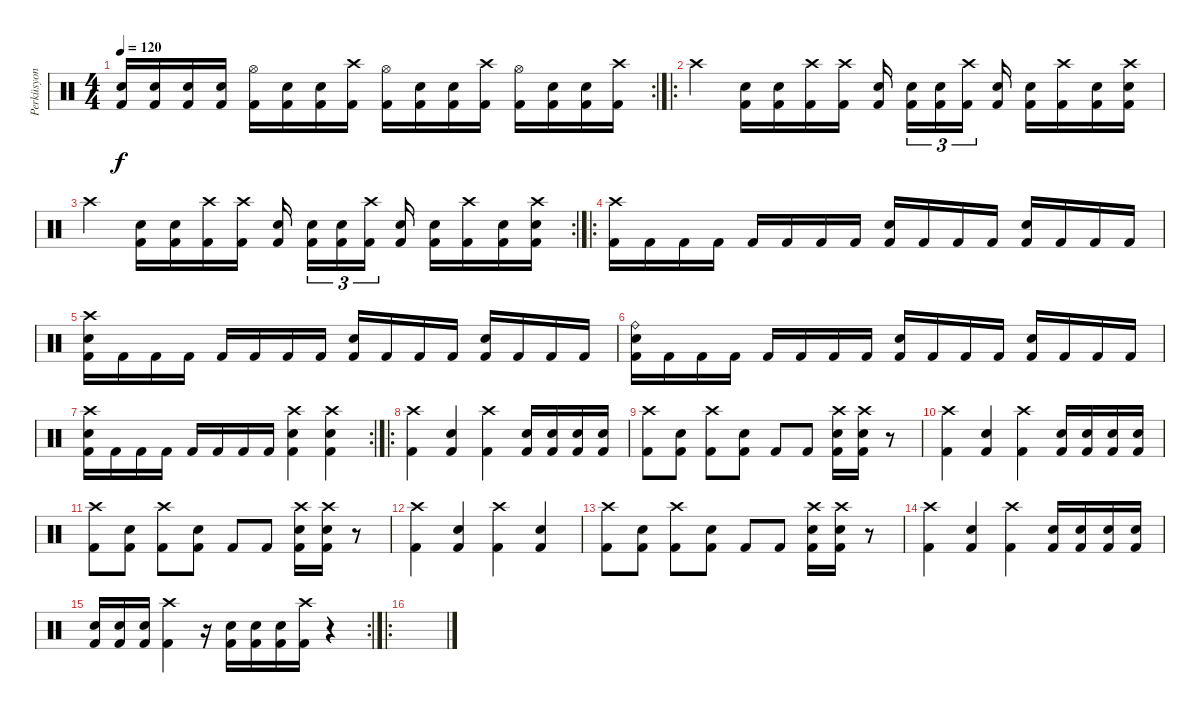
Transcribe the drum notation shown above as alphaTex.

\track ("Perküsyon" "Perküsyon") {instrument percussion}
\staff {score}
\articulation defaults
\rc 2
\ts (4 4)
\tempo 120
\clef neutral
\ks c
("Electric Snare (hit)" "Kick (hit) 2").16{dy f} ("Electric Snare (hit)" "Kick (hit) 2").16 ("Electric Snare (hit)" "Kick (hit) 2").16 ("Electric Snare (hit)" "Kick (hit) 2").16 ("Hi-Hat (open)" "Kick (hit) 2").16 ("Electric Snare (hit)" "Kick (hit) 2").16 ("Electric Snare (hit)" "Kick (hit) 2").16 ("Crash high (hit)" "Kick (hit) 2").16 ("Hi-Hat (open)" "Kick (hit) 2").16 ("Electric Snare (hit)" "Kick (hit) 2").16 ("Electric Snare (hit)" "Kick (hit) 2").16 ("Crash high (hit)" "Kick (hit) 2").16 ("Hi-Hat (open)" "Kick (hit) 2").16 ("Electric Snare (hit)" "Kick (hit) 2").16 ("Electric Snare (hit)" "Kick (hit) 2").16 ("Crash high (hit)" "Kick (hit) 2").16 |
\ro "Crash high (hit)".4
("Electric Snare (hit)" "Kick (hit) 2").16 ("Electric Snare (hit)" "Kick (hit) 2").16 ("Crash high (hit)" "Kick (hit) 2").16 ("Crash high (hit)" "Kick (hit) 2").16 ("Electric Snare (hit)" "Kick (hit) 2").16{beam splitsecondary} ("Electric Snare (hit)" "Kick (hit) 2").16{tu (3 2)} ("Electric Snare (hit)" "Kick (hit) 2").16{tu (3 2)} ("Crash high (hit)" "Kick (hit) 2").16{tu (3 2) beam splitsecondary} ("Electric Snare (hit)" "Kick (hit) 2").16 ("Electric Snare (hit)" "Kick (hit) 2").16 ("Crash high (hit)" "Kick (hit) 2").16 ("Electric Snare (hit)" "Kick (hit) 2").16 ("Crash high (hit)" "Electric Snare (hit)" "Kick (hit) 2").16 |
\rc 2 "Crash high (hit)".4
("Electric Snare (hit)" "Kick (hit) 2").16 ("Electric Snare (hit)" "Kick (hit) 2").16 ("Crash high (hit)" "Kick (hit) 2").16 ("Crash high (hit)" "Kick (hit) 2").16 ("Electric Snare (hit)" "Kick (hit) 2").16{beam splitsecondary} ("Electric Snare (hit)" "Kick (hit) 2").16{tu (3 2)} ("Electric Snare (hit)" "Kick (hit) 2").16{tu (3 2)} ("Crash high (hit)" "Kick (hit) 2").16{tu (3 2) beam splitsecondary} ("Electric Snare (hit)" "Kick (hit) 2").16 ("Electric Snare (hit)" "Kick (hit) 2").16 ("Crash high (hit)" "Kick (hit) 2").16 ("Electric Snare (hit)" "Kick (hit) 2").16 ("Crash high (hit)" "Electric Snare (hit)" "Kick (hit) 2").16 |
\ro
("Crash high (hit)" "Kick (hit) 2").16 "Kick (hit) 2".16 "Kick (hit) 2".16 "Kick (hit) 2".16 "Kick (hit) 2".16 "Kick (hit) 2".16 "Kick (hit) 2".16 "Kick (hit) 2".16 ("Electric Snare (hit)" "Kick (hit) 2").16 "Kick (hit) 2".16 "Kick (hit) 2".16 "Kick (hit) 2".16 ("Electric Snare (hit)" "Kick (hit) 2").16 "Kick (hit) 2".16 "Kick (hit) 2".16 "Kick (hit) 2".16 |
("Crash high (hit)" "Electric Snare (hit)" "Kick (hit) 2").16 "Kick (hit) 2".16 "Kick (hit) 2".16 "Kick (hit) 2".16 "Kick (hit) 2".16 "Kick (hit) 2".16 "Kick (hit) 2".16 "Kick (hit) 2".16 ("Electric Snare (hit)" "Kick (hit) 2").16 "Kick (hit) 2".16 "Kick (hit) 2".16 "Kick (hit) 2".16 ("Electric Snare (hit)" "Kick (hit) 2").16 "Kick (hit) 2".16 "Kick (hit) 2".16 "Kick (hit) 2".16 |
("Ride (bell)" "Electric Snare (hit)" "Kick (hit) 2").16 "Kick (hit) 2".16 "Kick (hit) 2".16 "Kick (hit) 2".16 "Kick (hit) 2".16 "Kick (hit) 2".16 "Kick (hit) 2".16 "Kick (hit) 2".16 ("Electric Snare (hit)" "Kick (hit) 2").16 "Kick (hit) 2".16 "Kick (hit) 2".16 "Kick (hit) 2".16 ("Electric Snare (hit)" "Kick (hit) 2").16 "Kick (hit) 2".16 "Kick (hit) 2".16 "Kick (hit) 2".16 |
\rc 2
("Crash high (hit)" "Electric Snare (hit)" "Kick (hit) 2").16 "Kick (hit) 2".16 "Kick (hit) 2".16 "Kick (hit) 2".16 "Kick (hit) 2".16 "Kick (hit) 2".16 "Kick (hit) 2".16 "Kick (hit) 2".16 ("Crash high (hit)" "Electric Snare (hit)" "Kick (hit) 2").4 ("Crash high (hit)" "Electric Snare (hit)" "Kick (hit) 2").4 |
\ro
("Crash high (hit)" "Kick (hit) 2").4 ("Electric Snare (hit)" "Kick (hit) 2").4 ("Crash high (hit)" "Kick (hit) 2").4 ("Electric Snare (hit)" "Kick (hit) 2").16 ("Electric Snare (hit)" "Kick (hit) 2").16 ("Electric Snare (hit)" "Kick (hit) 2").16 ("Electric Snare (hit)" "Kick (hit) 2").16 |
("Crash high (hit)" "Kick (hit) 2").8 ("Electric Snare (hit)" "Kick (hit) 2").8 ("Crash high (hit)" "Kick (hit) 2").8 ("Electric Snare (hit)" "Kick (hit) 2").8 "Kick (hit) 2".8 "Kick (hit) 2".8 ("Crash high (hit)" "Electric Snare (hit)" "Kick (hit) 2").16 ("Crash high (hit)" "Electric Snare (hit)" "Kick (hit) 2").16 r.8 |
("Crash high (hit)" "Kick (hit) 2").4 ("Electric Snare (hit)" "Kick (hit) 2").4 ("Crash high (hit)" "Kick (hit) 2").4 ("Electric Snare (hit)" "Kick (hit) 2").16 ("Electric Snare (hit)" "Kick (hit) 2").16 ("Electric Snare (hit)" "Kick (hit) 2").16 ("Electric Snare (hit)" "Kick (hit) 2").16 |
("Crash high (hit)" "Kick (hit) 2").8 ("Electric Snare (hit)" "Kick (hit) 2").8 ("Crash high (hit)" "Kick (hit) 2").8 ("Electric Snare (hit)" "Kick (hit) 2").8 "Kick (hit) 2".8 "Kick (hit) 2".8 ("Crash high (hit)" "Electric Snare (hit)" "Kick (hit) 2").16 ("Crash high (hit)" "Electric Snare (hit)" "Kick (hit) 2").16 r.8 |
("Crash high (hit)" "Kick (hit) 2").4 ("Electric Snare (hit)" "Kick (hit) 2").4 ("Crash high (hit)" "Kick (hit) 2").4 ("Electric Snare (hit)" "Kick (hit) 2").4 |
("Crash high (hit)" "Kick (hit) 2").8 ("Electric Snare (hit)" "Kick (hit) 2").8 ("Crash high (hit)" "Kick (hit) 2").8 ("Electric Snare (hit)" "Kick (hit) 2").8 "Kick (hit) 2".8 "Kick (hit) 2".8 ("Crash high (hit)" "Electric Snare (hit)" "Kick (hit) 2").16 ("Crash high (hit)" "Electric Snare (hit)" "Kick (hit) 2").16 r.8 |
("Crash high (hit)" "Kick (hit) 2").4 ("Electric Snare (hit)" "Kick (hit) 2").4 ("Crash high (hit)" "Kick (hit) 2").4 ("Electric Snare (hit)" "Kick (hit) 2").16 ("Electric Snare (hit)" "Kick (hit) 2").16 ("Electric Snare (hit)" "Kick (hit) 2").16 ("Electric Snare (hit)" "Kick (hit) 2").16 |
\rc 2
("Electric Snare (hit)" "Kick (hit) 2").16 ("Electric Snare (hit)" "Kick (hit) 2").16 ("Electric Snare (hit)" "Kick (hit) 2").16 ("Crash high (hit)" "Kick (hit) 2").4 r.16 ("Electric Snare (hit)" "Kick (hit) 2").16 ("Electric Snare (hit)" "Kick (hit) 2").16 ("Electric Snare (hit)" "Kick (hit) 2").16 ("Crash high (hit)" "Kick (hit) 2").16 r.4 |
\ro
